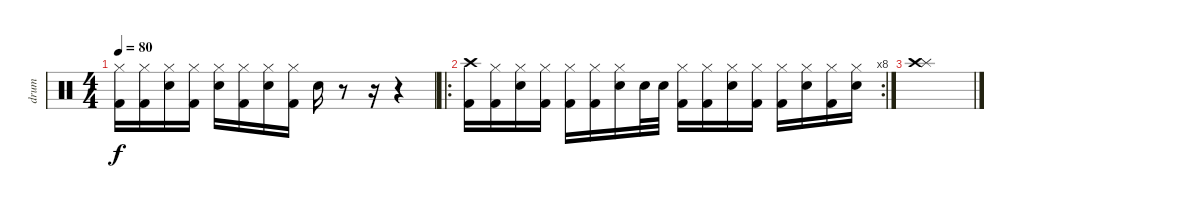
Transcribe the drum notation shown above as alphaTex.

\track ("drum" "drum") {instrument percussion}
\staff {score}
\articulation defaults
\ts (4 4)
\tempo 80
\clef neutral
\ks c
("Hi-Hat (closed)" "Kick (hit) 2").16{dy f} ("Hi-Hat (closed)" "Kick (hit) 2").16 ("Hi-Hat (closed)" "Electric Snare (hit)").16 ("Hi-Hat (closed)" "Kick (hit) 2").16 ("Hi-Hat (closed)" "Electric Snare (hit)").16 ("Hi-Hat (closed)" "Kick (hit) 2").16 ("Hi-Hat (closed)" "Electric Snare (hit)").16 ("Hi-Hat (closed)" "Kick (hit) 2").16 "Electric Snare (hit)".16 r.8 r.16 r.4 |
\ro
\rc 8
("Crash high (hit)" "Kick (hit) 2").16 ("Hi-Hat (closed)" "Kick (hit) 2").16 ("Hi-Hat (closed)" "Electric Snare (hit)").16 ("Hi-Hat (closed)" "Kick (hit) 2").16 ("Hi-Hat (closed)" "Kick (hit) 2").16 ("Hi-Hat (closed)" "Kick (hit) 2").16 ("Hi-Hat (closed)" "Electric Snare (hit)").16 "Electric Snare (hit)".32 "Electric Snare (hit)".32 ("Hi-Hat (closed)" "Kick (hit) 2").16 ("Hi-Hat (closed)" "Kick (hit) 2").16 ("Hi-Hat (closed)" "Electric Snare (hit)").16 ("Hi-Hat (closed)" "Kick (hit) 2").16 ("Hi-Hat (closed)" "Kick (hit) 2").16 ("Hi-Hat (closed)" "Electric Snare (hit)").16 ("Hi-Hat (closed)" "Kick (hit) 2").16 ("Hi-Hat (closed)" "Electric Snare (hit)").16 |
("Splash (hit)" "Crash high (hit)").1
